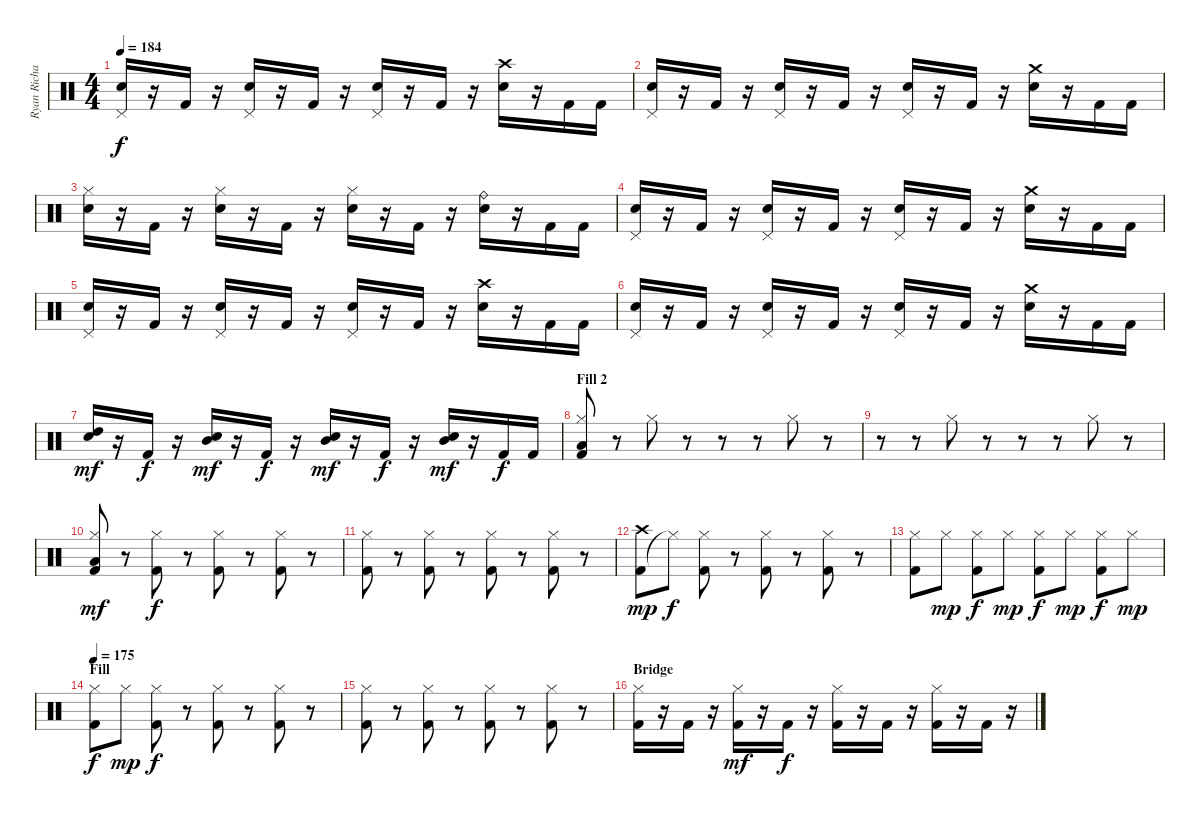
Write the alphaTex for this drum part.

\track ("Ryan Richards" "Ryan Richa") {instrument percussion}
\staff {score}
\articulation defaults
\ts (4 4)
\tempo 184
\clef neutral
\ks c
("Snare (hit) 2" "Pedal Hi-Hat (hit)").16{dy f} r.16 "Kick (hit) 2".16 r.16 ("Snare (hit) 2" "Pedal Hi-Hat (hit)").16 r.16 "Kick (hit) 2".16 r.16 ("Snare (hit) 2" "Pedal Hi-Hat (hit)").16 r.16 "Kick (hit) 2".16 r.16 ("Snare (hit) 2" "Crash high (hit)").16 r.16 "Kick (hit) 2".16 "Kick (hit) 2".16 |
("Snare (hit) 2" "Pedal Hi-Hat (hit)").16 r.16 "Kick (hit) 2".16 r.16 ("Snare (hit) 2" "Pedal Hi-Hat (hit)").16 r.16 "Kick (hit) 2".16 r.16 ("Snare (hit) 2" "Pedal Hi-Hat (hit)").16 r.16 "Kick (hit) 2".16 r.16 ("Snare (hit) 2" "Crash medium (hit)").16 r.16 "Kick (hit) 2".16 "Kick (hit) 2".16 |
("Snare (hit) 2" "Hi-Hat (closed)").16 r.16 "Kick (hit) 2".16 r.16 ("Snare (hit) 2" "Hi-Hat (closed)").16 r.16 "Kick (hit) 2".16 r.16 ("Snare (hit) 2" "Hi-Hat (closed)").16 r.16 "Kick (hit) 2".16 r.16 ("Snare (hit) 2" "Ride (bell)").16 r.16 "Kick (hit) 2".16 "Kick (hit) 2".16 |
("Snare (hit) 2" "Pedal Hi-Hat (hit)").16 r.16 "Kick (hit) 2".16 r.16 ("Snare (hit) 2" "Pedal Hi-Hat (hit)").16 r.16 "Kick (hit) 2".16 r.16 ("Snare (hit) 2" "Pedal Hi-Hat (hit)").16 r.16 "Kick (hit) 2".16 r.16 ("Snare (hit) 2" "Crash medium (hit)").16 r.16 "Kick (hit) 2".16 "Kick (hit) 2".16 |
("Snare (hit) 2" "Pedal Hi-Hat (hit)").16 r.16 "Kick (hit) 2".16 r.16 ("Snare (hit) 2" "Pedal Hi-Hat (hit)").16 r.16 "Kick (hit) 2".16 r.16 ("Snare (hit) 2" "Pedal Hi-Hat (hit)").16 r.16 "Kick (hit) 2".16 r.16 ("Snare (hit) 2" "Crash high (hit)").16 r.16 "Kick (hit) 2".16 "Kick (hit) 2".16 |
("Snare (hit) 2" "Pedal Hi-Hat (hit)").16 r.16 "Kick (hit) 2".16 r.16 ("Snare (hit) 2" "Pedal Hi-Hat (hit)").16 r.16 "Kick (hit) 2".16 r.16 ("Snare (hit) 2" "Pedal Hi-Hat (hit)").16 r.16 "Kick (hit) 2".16 r.16 ("Snare (hit) 2" "Crash medium (hit)").16 r.16 "Kick (hit) 2".16 "Kick (hit) 2".16 |
("High Tom (hit)" "Snare (hit) 2").16{dy mf} r.16 "Kick (hit) 2".16{dy f} r.16 ("Mid Tom (hit)" "Snare (hit) 2").16{dy mf} r.16 "Kick (hit) 2".16{dy f} r.16 ("Mid Tom (hit)" "Snare (hit) 2").16{dy mf} r.16 "Kick (hit) 2".16{dy f} r.16 ("Mid Tom (hit)" "Snare (hit) 2").16{dy mf} r.16 "Kick (hit) 2".16{dy f} "Kick (hit) 2".16 |
\section ("" "Fill 2")
("Kick (hit) 2" "Low Floor Tom (hit)" "Hi-Hat (closed)").8 r.8 "Hi-Hat (closed)".8 r.8 r.8 r.8 "Hi-Hat (closed)".8 r.8 |
r.8 r.8 "Hi-Hat (closed)".8 r.8 r.8 r.8 "Hi-Hat (closed)".8 r.8 |
("Kick (hit) 2" "Low Floor Tom (hit)" "Hi-Hat (closed)").8{dy mf} r.8 ("Kick (hit) 2" "Hi-Hat (closed)").8{dy f} r.8 ("Kick (hit) 2" "Hi-Hat (closed)").8 r.8 ("Kick (hit) 2" "Hi-Hat (closed)").8 r.8 |
("Kick (hit) 2" "Hi-Hat (closed)").8 r.8 ("Kick (hit) 2" "Hi-Hat (closed)").8 r.8 ("Kick (hit) 2" "Hi-Hat (closed)").8 r.8 ("Kick (hit) 2" "Hi-Hat (closed)").8 r.8 |
("Kick (hit) 2" "Crash high (hit)").8{dy mp} "Hi-Hat (closed)"{t}.8{dy f} ("Kick (hit) 2" "Hi-Hat (closed)").8 r.8 ("Kick (hit) 2" "Hi-Hat (closed)").8 r.8 ("Kick (hit) 2" "Hi-Hat (closed)").8 r.8 |
("Kick (hit) 2" "Hi-Hat (closed)").8 "Hi-Hat (closed)".8{dy mp} ("Kick (hit) 2" "Hi-Hat (closed)").8{dy f} "Hi-Hat (closed)".8{dy mp} ("Kick (hit) 2" "Hi-Hat (closed)").8{dy f} "Hi-Hat (closed)".8{dy mp} ("Kick (hit) 2" "Hi-Hat (closed)").8{dy f} "Hi-Hat (closed)".8{dy mp} |
\section ("" "Fill")
\tempo 175
("Kick (hit) 2" "Hi-Hat (closed)").8{dy f} "Hi-Hat (closed)".8{dy mp} ("Kick (hit) 2" "Hi-Hat (closed)").8{dy f} r.8 ("Kick (hit) 2" "Hi-Hat (closed)").8 r.8 ("Kick (hit) 2" "Hi-Hat (closed)").8 r.8 |
("Kick (hit) 2" "Hi-Hat (closed)").8 r.8 ("Kick (hit) 2" "Hi-Hat (closed)").8 r.8 ("Kick (hit) 2" "Hi-Hat (closed)").8 r.8 ("Kick (hit) 2" "Hi-Hat (closed)").8 r.8 |
\section ("" "Bridge")
("Kick (hit) 2" "Hi-Hat (closed)").16 r.16 "Kick (hit) 2".16 r.16 ("Kick (hit) 2" "Hi-Hat (closed)").16{dy mf} r.16 "Kick (hit) 2".16{dy f} r.16 ("Kick (hit) 2" "Hi-Hat (closed)").16 r.16 "Kick (hit) 2".16 r.16 ("Kick (hit) 2" "Hi-Hat (closed)").16 r.16 "Kick (hit) 2".16 r.16
